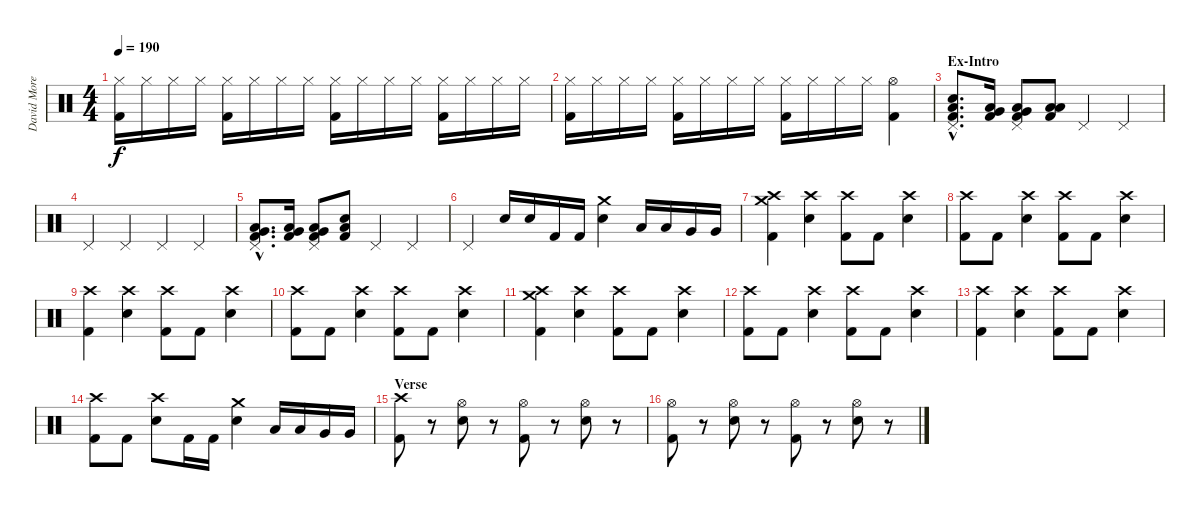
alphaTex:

\track ("David Moreno" "David More") {instrument percussion}
\staff {score}
\articulation defaults
\ts (4 4)
\tempo 190
\clef neutral
\ks c
("Hi-Hat (closed)" "Kick (hit) 2").16{dy f} "Hi-Hat (closed)".16 "Hi-Hat (closed)".16 "Hi-Hat (closed)".16 ("Hi-Hat (closed)" "Kick (hit) 2").16 "Hi-Hat (closed)".16 "Hi-Hat (closed)".16 "Hi-Hat (closed)".16 ("Hi-Hat (closed)" "Kick (hit) 2").16 "Hi-Hat (closed)".16 "Hi-Hat (closed)".16 "Hi-Hat (closed)".16 ("Hi-Hat (closed)" "Kick (hit) 2").16 "Hi-Hat (closed)".16 "Hi-Hat (closed)".16 "Hi-Hat (closed)".16 |
("Hi-Hat (closed)" "Kick (hit) 2").16 "Hi-Hat (closed)".16 "Hi-Hat (closed)".16 "Hi-Hat (closed)".16 ("Hi-Hat (closed)" "Kick (hit) 2").16 "Hi-Hat (closed)".16 "Hi-Hat (closed)".16 "Hi-Hat (closed)".16 ("Hi-Hat (closed)" "Kick (hit) 2").16 "Hi-Hat (closed)".16 "Hi-Hat (closed)".16 "Hi-Hat (closed)".16 ("Hi-Hat (open)" "Kick (hit) 2").4 |
\section ("" "Ex-Intro")
("Pedal Hi-Hat (hit)"{hac} "Snare (hit) 2"{hac} "Low Floor Tom (hit)"{hac} "Kick (hit) 2"{hac}).8{d} ("Very Low Tom (hit)" "Low Floor Tom (hit)" "Kick (hit) 2").16 ("Pedal Hi-Hat (hit)" "Very Low Tom (hit)" "Low Floor Tom (hit)" "Kick (hit) 2").8 ("Low Floor Tom (hit)" "Low Floor Tom (hit)" "Kick (hit) 2").8 "Pedal Hi-Hat (hit)".4 "Pedal Hi-Hat (hit)".4 |
"Pedal Hi-Hat (hit)".4 "Pedal Hi-Hat (hit)".4 "Pedal Hi-Hat (hit)".4 "Pedal Hi-Hat (hit)".4 |
("Pedal Hi-Hat (hit)"{hac} "Very Low Tom (hit)"{hac} "Low Floor Tom (hit)"{hac} "Kick (hit) 2"{hac}).8{d} ("Very Low Tom (hit)" "Low Floor Tom (hit)" "Kick (hit) 2").16 ("Pedal Hi-Hat (hit)" "Very Low Tom (hit)" "Low Floor Tom (hit)" "Kick (hit) 2").8 ("Snare (hit) 2" "Low Floor Tom (hit)" "Kick (hit) 2").8 "Pedal Hi-Hat (hit)".4 "Pedal Hi-Hat (hit)".4 |
"Pedal Hi-Hat (hit)".4 "Snare (hit) 2".16 "Snare (hit) 2".16 "Kick (hit) 2".16 "Kick (hit) 2".16 ("Crash medium (hit)" "Snare (hit) 2").4 "Low Tom (hit)".16 "Low Tom (hit)".16 "Very Low Tom (hit)".16 "Very Low Tom (hit)".16 |
("Crash high (hit)" "Crash medium (hit)" "Kick (hit) 2").4 ("Crash high (hit)" "Snare (hit) 2").4 ("Crash high (hit)" "Kick (hit) 2").8 "Kick (hit) 2".8 ("Crash high (hit)" "Snare (hit) 2").4 |
("Crash high (hit)" "Kick (hit) 2").8 "Kick (hit) 2".8 ("Crash high (hit)" "Snare (hit) 2").4 ("Crash high (hit)" "Kick (hit) 2").8 "Kick (hit) 2".8 ("Crash high (hit)" "Snare (hit) 2").4 |
("Crash high (hit)" "Kick (hit) 2").4 ("Crash high (hit)" "Snare (hit) 2").4 ("Crash high (hit)" "Kick (hit) 2").8 "Kick (hit) 2".8 ("Crash high (hit)" "Snare (hit) 2").4 |
("Crash high (hit)" "Kick (hit) 2").8 "Kick (hit) 2".8 ("Crash high (hit)" "Snare (hit) 2").4 ("Crash high (hit)" "Kick (hit) 2").8 "Kick (hit) 2".8 ("Crash high (hit)" "Snare (hit) 2").4 |
("Crash high (hit)" "Crash medium (hit)" "Kick (hit) 2").4 ("Crash high (hit)" "Snare (hit) 2").4 ("Crash high (hit)" "Kick (hit) 2").8 "Kick (hit) 2".8 ("Crash high (hit)" "Snare (hit) 2").4 |
("Crash high (hit)" "Kick (hit) 2").8 "Kick (hit) 2".8 ("Crash high (hit)" "Snare (hit) 2").4 ("Crash high (hit)" "Kick (hit) 2").8 "Kick (hit) 2".8 ("Crash high (hit)" "Snare (hit) 2").4 |
("Crash high (hit)" "Kick (hit) 2").4 ("Crash high (hit)" "Snare (hit) 2").4 ("Crash high (hit)" "Kick (hit) 2").8 "Kick (hit) 2".8 ("Crash high (hit)" "Snare (hit) 2").4 |
("Crash high (hit)" "Kick (hit) 2").8 "Kick (hit) 2".8 ("Crash high (hit)" "Snare (hit) 2").8 "Kick (hit) 2".16 "Kick (hit) 2".16 ("Crash medium (hit)" "Snare (hit) 2").4 "Low Tom (hit)".16 "Low Tom (hit)".16 "Very Low Tom (hit)".16 "Very Low Tom (hit)".16 |
\section ("" "Verse")
("Crash high (hit)" "Kick (hit) 2").8 r.8 ("Hi-Hat (open)" "Snare (hit) 2").8 r.8 ("Hi-Hat (open)" "Kick (hit) 2").8 r.8 ("Hi-Hat (open)" "Snare (hit) 2").8 r.8 |
("Hi-Hat (open)" "Kick (hit) 2").8 r.8 ("Hi-Hat (open)" "Snare (hit) 2").8 r.8 ("Hi-Hat (open)" "Kick (hit) 2").8 r.8 ("Hi-Hat (open)" "Snare (hit) 2").8 r.8
